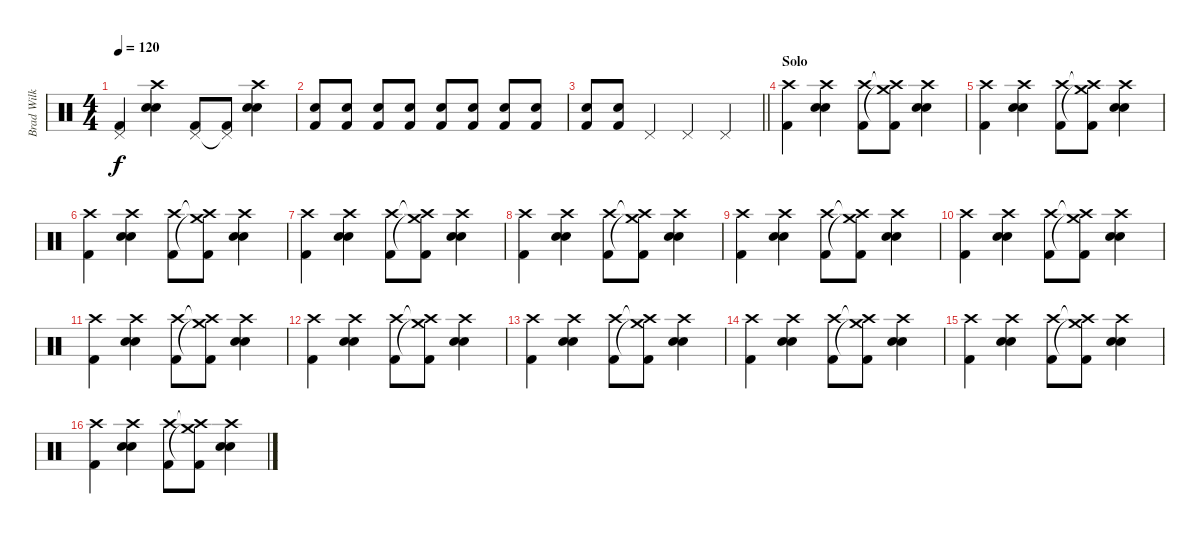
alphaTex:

\track ("Brad Wilk" "Brad Wilk") {instrument percussion}
\staff {score}
\articulation defaults
\ts (4 4)
\tempo 120
\clef neutral
\ks c
("Pedal Hi-Hat (hit)" "Kick (hit) 2").4{dy f} ("Electric Snare (hit)" "Snare (hit) 2" "Crash high (hit)").4 ("Pedal Hi-Hat (hit)" "Kick (hit) 2").8 ("Pedal Hi-Hat (hit)"{t} "Kick (hit) 2").8 ("Electric Snare (hit)" "Snare (hit) 2" "Crash high (hit)").4 |
("Electric Snare (hit)" "Kick (hit) 2").8 ("Electric Snare (hit)" "Kick (hit) 2").8 ("Electric Snare (hit)" "Kick (hit) 2").8 ("Electric Snare (hit)" "Kick (hit) 2").8 ("Electric Snare (hit)" "Kick (hit) 2").8 ("Electric Snare (hit)" "Kick (hit) 2").8 ("Electric Snare (hit)" "Kick (hit) 2").8 ("Electric Snare (hit)" "Kick (hit) 2").8 |
\barLineRight lightlight
("Electric Snare (hit)" "Kick (hit) 2").8 ("Electric Snare (hit)" "Kick (hit) 2").8 "Pedal Hi-Hat (hit)".4 "Pedal Hi-Hat (hit)".4 "Pedal Hi-Hat (hit)".4 |
\section ("" "Solo")
("Crash high (hit)" "Kick (hit) 2").4 ("Electric Snare (hit)" "Snare (hit) 2" "Crash high (hit)").4 ("Crash high (hit)" "Kick (hit) 2").8 ("Crash high (hit)"{t} "Crash medium (hit)"{t} "Kick (hit) 2").8 ("Electric Snare (hit)" "Snare (hit) 2" "Crash high (hit)").4 |
("Crash high (hit)" "Kick (hit) 2").4 ("Electric Snare (hit)" "Snare (hit) 2" "Crash high (hit)").4 ("Crash high (hit)" "Kick (hit) 2").8 ("Crash high (hit)"{t} "Crash medium (hit)"{t} "Kick (hit) 2").8 ("Electric Snare (hit)" "Snare (hit) 2" "Crash high (hit)").4 |
("Crash high (hit)" "Kick (hit) 2").4 ("Electric Snare (hit)" "Snare (hit) 2" "Crash high (hit)").4 ("Crash high (hit)" "Kick (hit) 2").8 ("Crash high (hit)"{t} "Crash medium (hit)"{t} "Kick (hit) 2").8 ("Electric Snare (hit)" "Snare (hit) 2" "Crash high (hit)").4 |
("Crash high (hit)" "Kick (hit) 2").4 ("Electric Snare (hit)" "Snare (hit) 2" "Crash high (hit)").4 ("Crash high (hit)" "Kick (hit) 2").8 ("Crash high (hit)"{t} "Crash medium (hit)"{t} "Kick (hit) 2").8 ("Electric Snare (hit)" "Snare (hit) 2" "Crash high (hit)").4 |
("Crash high (hit)" "Kick (hit) 2").4 ("Electric Snare (hit)" "Snare (hit) 2" "Crash high (hit)").4 ("Crash high (hit)" "Kick (hit) 2").8 ("Crash high (hit)"{t} "Crash medium (hit)"{t} "Kick (hit) 2").8 ("Electric Snare (hit)" "Snare (hit) 2" "Crash high (hit)").4 |
("Crash high (hit)" "Kick (hit) 2").4 ("Electric Snare (hit)" "Snare (hit) 2" "Crash high (hit)").4 ("Crash high (hit)" "Kick (hit) 2").8 ("Crash high (hit)"{t} "Crash medium (hit)"{t} "Kick (hit) 2").8 ("Electric Snare (hit)" "Snare (hit) 2" "Crash high (hit)").4 |
("Crash high (hit)" "Kick (hit) 2").4 ("Electric Snare (hit)" "Snare (hit) 2" "Crash high (hit)").4 ("Crash high (hit)" "Kick (hit) 2").8 ("Crash high (hit)"{t} "Crash medium (hit)"{t} "Kick (hit) 2").8 ("Electric Snare (hit)" "Snare (hit) 2" "Crash high (hit)").4 |
("Crash high (hit)" "Kick (hit) 2").4 ("Electric Snare (hit)" "Snare (hit) 2" "Crash high (hit)").4 ("Crash high (hit)" "Kick (hit) 2").8 ("Crash high (hit)"{t} "Crash medium (hit)"{t} "Kick (hit) 2").8 ("Electric Snare (hit)" "Snare (hit) 2" "Crash high (hit)").4 |
("Crash high (hit)" "Kick (hit) 2").4 ("Electric Snare (hit)" "Snare (hit) 2" "Crash high (hit)").4 ("Crash high (hit)" "Kick (hit) 2").8 ("Crash high (hit)"{t} "Crash medium (hit)"{t} "Kick (hit) 2").8 ("Electric Snare (hit)" "Snare (hit) 2" "Crash high (hit)").4 |
("Crash high (hit)" "Kick (hit) 2").4 ("Electric Snare (hit)" "Snare (hit) 2" "Crash high (hit)").4 ("Crash high (hit)" "Kick (hit) 2").8 ("Crash high (hit)"{t} "Crash medium (hit)"{t} "Kick (hit) 2").8 ("Electric Snare (hit)" "Snare (hit) 2" "Crash high (hit)").4 |
("Crash high (hit)" "Kick (hit) 2").4 ("Electric Snare (hit)" "Snare (hit) 2" "Crash high (hit)").4 ("Crash high (hit)" "Kick (hit) 2").8 ("Crash high (hit)"{t} "Crash medium (hit)"{t} "Kick (hit) 2").8 ("Electric Snare (hit)" "Snare (hit) 2" "Crash high (hit)").4 |
("Crash high (hit)" "Kick (hit) 2").4 ("Electric Snare (hit)" "Snare (hit) 2" "Crash high (hit)").4 ("Crash high (hit)" "Kick (hit) 2").8 ("Crash high (hit)"{t} "Crash medium (hit)"{t} "Kick (hit) 2").8 ("Electric Snare (hit)" "Snare (hit) 2" "Crash high (hit)").4 |
("Crash high (hit)" "Kick (hit) 2").4 ("Electric Snare (hit)" "Snare (hit) 2" "Crash high (hit)").4 ("Crash high (hit)" "Kick (hit) 2").8 ("Crash high (hit)"{t} "Crash medium (hit)"{t} "Kick (hit) 2").8 ("Electric Snare (hit)" "Snare (hit) 2" "Crash high (hit)").4
